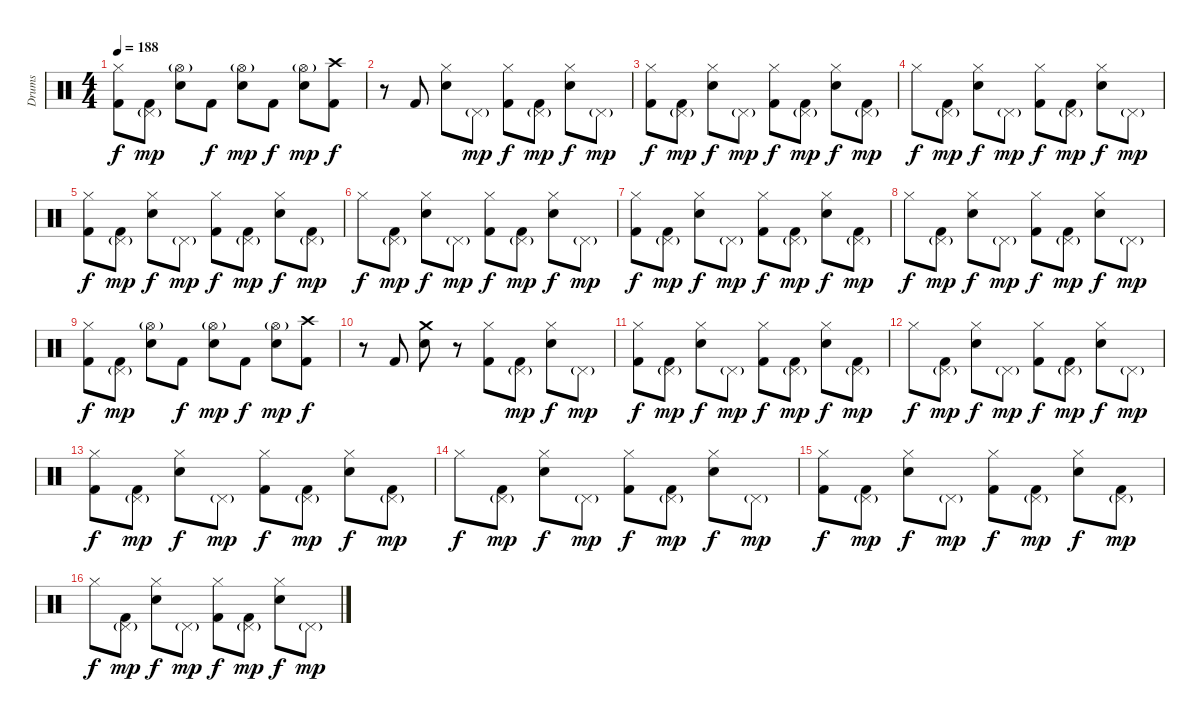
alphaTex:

\track ("Drums" "Drums") {instrument percussion}
\staff {score}
\articulation defaults
\ts (4 4)
\tempo 188
\clef neutral
\ks c
("Hi-Hat (closed)" "Kick (hit) 2").8{dy f} ("Pedal Hi-Hat (hit)"{g} "Kick (hit) 2").8{dy mp} ("Hi-Hat (open)"{g} "Electric Snare (hit)").8 "Kick (hit) 2".8{dy f} ("Hi-Hat (open)"{g} "Electric Snare (hit)").8{dy mp} "Kick (hit) 2".8{dy f} ("Hi-Hat (open)"{g} "Electric Snare (hit)").8{dy mp} ("Crash high (hit)" "Kick (hit) 2").8{dy f} |
r.8 "Kick (hit) 2".8 ("Hi-Hat (closed)" "Electric Snare (hit)").8 "Pedal Hi-Hat (hit)"{g}.8{dy mp} ("Hi-Hat (closed)" "Kick (hit) 2").8{dy f} ("Pedal Hi-Hat (hit)"{g} "Kick (hit) 2").8{dy mp} ("Hi-Hat (closed)" "Electric Snare (hit)").8{dy f} "Pedal Hi-Hat (hit)"{g}.8{dy mp} |
("Hi-Hat (closed)" "Kick (hit) 2").8{dy f} ("Pedal Hi-Hat (hit)"{g} "Kick (hit) 2").8{dy mp} ("Hi-Hat (closed)" "Electric Snare (hit)").8{dy f} "Pedal Hi-Hat (hit)"{g}.8{dy mp} ("Hi-Hat (closed)" "Kick (hit) 2").8{dy f} ("Pedal Hi-Hat (hit)"{g} "Kick (hit) 2").8{dy mp} ("Hi-Hat (closed)" "Electric Snare (hit)").8{dy f} ("Pedal Hi-Hat (hit)"{g} "Kick (hit) 2").8{dy mp} |
"Hi-Hat (closed)".8{dy f} ("Pedal Hi-Hat (hit)"{g} "Kick (hit) 2").8{dy mp} ("Hi-Hat (closed)" "Electric Snare (hit)").8{dy f} "Pedal Hi-Hat (hit)"{g}.8{dy mp} ("Hi-Hat (closed)" "Kick (hit) 2").8{dy f} ("Pedal Hi-Hat (hit)"{g} "Kick (hit) 2").8{dy mp} ("Hi-Hat (closed)" "Electric Snare (hit)").8{dy f} "Pedal Hi-Hat (hit)"{g}.8{dy mp} |
("Hi-Hat (closed)" "Kick (hit) 2").8{dy f} ("Pedal Hi-Hat (hit)"{g} "Kick (hit) 2").8{dy mp} ("Hi-Hat (closed)" "Electric Snare (hit)").8{dy f} "Pedal Hi-Hat (hit)"{g}.8{dy mp} ("Hi-Hat (closed)" "Kick (hit) 2").8{dy f} ("Pedal Hi-Hat (hit)"{g} "Kick (hit) 2").8{dy mp} ("Hi-Hat (closed)" "Electric Snare (hit)").8{dy f} ("Pedal Hi-Hat (hit)"{g} "Kick (hit) 2").8{dy mp} |
"Hi-Hat (closed)".8{dy f} ("Pedal Hi-Hat (hit)"{g} "Kick (hit) 2").8{dy mp} ("Hi-Hat (closed)" "Electric Snare (hit)").8{dy f} "Pedal Hi-Hat (hit)"{g}.8{dy mp} ("Hi-Hat (closed)" "Kick (hit) 2").8{dy f} ("Pedal Hi-Hat (hit)"{g} "Kick (hit) 2").8{dy mp} ("Hi-Hat (closed)" "Electric Snare (hit)").8{dy f} "Pedal Hi-Hat (hit)"{g}.8{dy mp} |
("Hi-Hat (closed)" "Kick (hit) 2").8{dy f} ("Pedal Hi-Hat (hit)"{g} "Kick (hit) 2").8{dy mp} ("Hi-Hat (closed)" "Electric Snare (hit)").8{dy f} "Pedal Hi-Hat (hit)"{g}.8{dy mp} ("Hi-Hat (closed)" "Kick (hit) 2").8{dy f} ("Pedal Hi-Hat (hit)"{g} "Kick (hit) 2").8{dy mp} ("Hi-Hat (closed)" "Electric Snare (hit)").8{dy f} ("Pedal Hi-Hat (hit)"{g} "Kick (hit) 2").8{dy mp} |
"Hi-Hat (closed)".8{dy f} ("Pedal Hi-Hat (hit)"{g} "Kick (hit) 2").8{dy mp} ("Hi-Hat (closed)" "Electric Snare (hit)").8{dy f} "Pedal Hi-Hat (hit)"{g}.8{dy mp} ("Hi-Hat (closed)" "Kick (hit) 2").8{dy f} ("Pedal Hi-Hat (hit)"{g} "Kick (hit) 2").8{dy mp} ("Hi-Hat (closed)" "Electric Snare (hit)").8{dy f} "Pedal Hi-Hat (hit)"{g}.8{dy mp} |
("Hi-Hat (closed)" "Kick (hit) 2").8{dy f} ("Pedal Hi-Hat (hit)"{g} "Kick (hit) 2").8{dy mp} ("Hi-Hat (open)"{g} "Electric Snare (hit)").8 "Kick (hit) 2".8{dy f} ("Hi-Hat (open)"{g} "Electric Snare (hit)").8{dy mp} "Kick (hit) 2".8{dy f} ("Hi-Hat (open)"{g} "Electric Snare (hit)").8{dy mp} ("Crash high (hit)" "Kick (hit) 2").8{dy f} |
r.8 "Kick (hit) 2".8 ("Crash medium (hit)" "Electric Snare (hit)").8 r.8 ("Hi-Hat (closed)" "Kick (hit) 2").8 ("Pedal Hi-Hat (hit)"{g} "Kick (hit) 2").8{dy mp} ("Hi-Hat (closed)" "Electric Snare (hit)").8{dy f} "Pedal Hi-Hat (hit)"{g}.8{dy mp} |
("Hi-Hat (closed)" "Kick (hit) 2").8{dy f} ("Pedal Hi-Hat (hit)"{g} "Kick (hit) 2").8{dy mp} ("Hi-Hat (closed)" "Electric Snare (hit)").8{dy f} "Pedal Hi-Hat (hit)"{g}.8{dy mp} ("Hi-Hat (closed)" "Kick (hit) 2").8{dy f} ("Pedal Hi-Hat (hit)"{g} "Kick (hit) 2").8{dy mp} ("Hi-Hat (closed)" "Electric Snare (hit)").8{dy f} ("Pedal Hi-Hat (hit)"{g} "Kick (hit) 2").8{dy mp} |
"Hi-Hat (closed)".8{dy f} ("Pedal Hi-Hat (hit)"{g} "Kick (hit) 2").8{dy mp} ("Hi-Hat (closed)" "Electric Snare (hit)").8{dy f} "Pedal Hi-Hat (hit)"{g}.8{dy mp} ("Hi-Hat (closed)" "Kick (hit) 2").8{dy f} ("Pedal Hi-Hat (hit)"{g} "Kick (hit) 2").8{dy mp} ("Hi-Hat (closed)" "Electric Snare (hit)").8{dy f} "Pedal Hi-Hat (hit)"{g}.8{dy mp} |
("Hi-Hat (closed)" "Kick (hit) 2").8{dy f} ("Pedal Hi-Hat (hit)"{g} "Kick (hit) 2").8{dy mp} ("Hi-Hat (closed)" "Electric Snare (hit)").8{dy f} "Pedal Hi-Hat (hit)"{g}.8{dy mp} ("Hi-Hat (closed)" "Kick (hit) 2").8{dy f} ("Pedal Hi-Hat (hit)"{g} "Kick (hit) 2").8{dy mp} ("Hi-Hat (closed)" "Electric Snare (hit)").8{dy f} ("Pedal Hi-Hat (hit)"{g} "Kick (hit) 2").8{dy mp} |
"Hi-Hat (closed)".8{dy f} ("Pedal Hi-Hat (hit)"{g} "Kick (hit) 2").8{dy mp} ("Hi-Hat (closed)" "Electric Snare (hit)").8{dy f} "Pedal Hi-Hat (hit)"{g}.8{dy mp} ("Hi-Hat (closed)" "Kick (hit) 2").8{dy f} ("Pedal Hi-Hat (hit)"{g} "Kick (hit) 2").8{dy mp} ("Hi-Hat (closed)" "Electric Snare (hit)").8{dy f} "Pedal Hi-Hat (hit)"{g}.8{dy mp} |
("Hi-Hat (closed)" "Kick (hit) 2").8{dy f} ("Pedal Hi-Hat (hit)"{g} "Kick (hit) 2").8{dy mp} ("Hi-Hat (closed)" "Electric Snare (hit)").8{dy f} "Pedal Hi-Hat (hit)"{g}.8{dy mp} ("Hi-Hat (closed)" "Kick (hit) 2").8{dy f} ("Pedal Hi-Hat (hit)"{g} "Kick (hit) 2").8{dy mp} ("Hi-Hat (closed)" "Electric Snare (hit)").8{dy f} ("Pedal Hi-Hat (hit)"{g} "Kick (hit) 2").8{dy mp} |
"Hi-Hat (closed)".8{dy f} ("Pedal Hi-Hat (hit)"{g} "Kick (hit) 2").8{dy mp} ("Hi-Hat (closed)" "Electric Snare (hit)").8{dy f} "Pedal Hi-Hat (hit)"{g}.8{dy mp} ("Hi-Hat (closed)" "Kick (hit) 2").8{dy f} ("Pedal Hi-Hat (hit)"{g} "Kick (hit) 2").8{dy mp} ("Hi-Hat (closed)" "Electric Snare (hit)").8{dy f} "Pedal Hi-Hat (hit)"{g}.8{dy mp}
